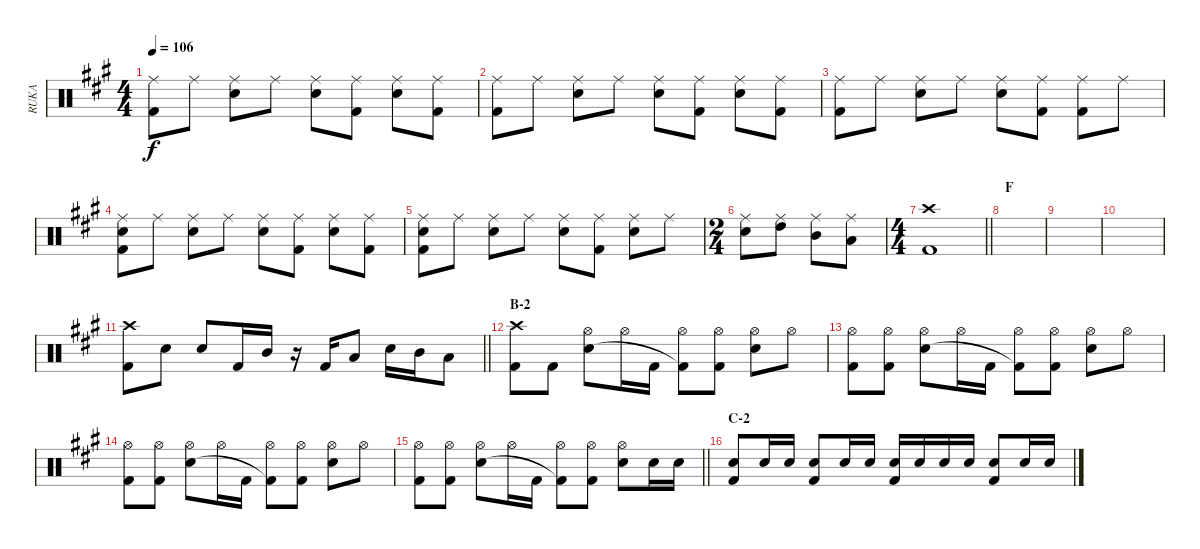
\track ("RUKA" "RUKA") {instrument percussion}
\staff {score}
\articulation defaults
\ts (4 4)
\tempo 106
\clef neutral
\ks a
("Ride (middle)" "Kick (hit) 2").8{dy f} "Ride (middle)".8 ("Ride (middle)" "Snare (hit) 2").8 "Ride (middle)".8 ("Ride (middle)" "Snare (hit) 2").8 ("Ride (middle)" "Kick (hit) 2").8 ("Ride (middle)" "Snare (hit) 2").8 ("Ride (middle)" "Kick (hit) 2").8 |
("Ride (middle)" "Kick (hit) 2").8 "Ride (middle)".8 ("Ride (middle)" "Snare (hit) 2").8 "Ride (middle)".8 ("Ride (middle)" "Snare (hit) 2").8 ("Ride (middle)" "Kick (hit) 2").8 ("Ride (middle)" "Snare (hit) 2").8 ("Ride (middle)" "Kick (hit) 2").8 |
("Ride (middle)" "Kick (hit) 2").8 "Ride (middle)".8 ("Ride (middle)" "Snare (hit) 2").8 "Ride (middle)".8 ("Ride (middle)" "Snare (hit) 2").8 ("Ride (middle)" "Kick (hit) 2").8 ("Ride (middle)" "Kick (hit) 2").8 "Ride (middle)".8 |
("Ride (middle)" "Snare (hit) 2" "Kick (hit) 2").8 "Ride (middle)".8 ("Ride (middle)" "Snare (hit) 2").8 "Ride (middle)".8 ("Ride (middle)" "Snare (hit) 2").8 ("Ride (middle)" "Kick (hit) 2").8 ("Ride (middle)" "Snare (hit) 2").8 ("Ride (middle)" "Kick (hit) 2").8 |
("Ride (middle)" "Snare (hit) 2" "Kick (hit) 2").8 "Ride (middle)".8 ("Ride (middle)" "Snare (hit) 2").8 "Ride (middle)".8 ("Ride (middle)" "Snare (hit) 2").8 ("Ride (middle)" "Kick (hit) 2").8 ("Ride (middle)" "Snare (hit) 2").8 "Ride (middle)".8 |
\ts (2 4)
("Ride (middle)" "Snare (hit) 2").8 ("Ride (middle)" "High Tom (hit)").8 ("Ride (middle)" "Mid Tom (hit)").8 ("Ride (middle)" "Low Tom (hit)").8 |
\ts (4 4)
\barLineRight lightlight
("Crash high (hit)" "Kick (hit) 2").1 |
\section ("" "F")
|
|
|
\barLineRight lightlight
("Crash high (hit)" "Kick (hit) 2").8 "Snare (hit) 2".8 "Snare (hit) 2".8 "Kick (hit) 2".16 "Mid Tom (hit)".16 r.16 "Kick (hit) 2".16 "Low Tom (hit)".8 "Snare (hit) 2".16 "Mid Tom (hit)".16 "Low Tom (hit)".8 |
\section ("" "B-2")
("Crash high (hit)" "Kick (hit) 2").8 "Kick (hit) 2".8 ("Hi-Hat (open)" "Snare (hit) 2").8 "Hi-Hat (open)".16 "Kick (hit) 2".16 ("Hi-Hat (open)" "Kick (hit) 2"{t}).8 ("Hi-Hat (open)" "Kick (hit) 2").8 ("Hi-Hat (open)" "Snare (hit) 2").8 "Hi-Hat (open)".8 |
("Hi-Hat (open)" "Kick (hit) 2").8 ("Hi-Hat (open)" "Kick (hit) 2").8 ("Hi-Hat (open)" "Snare (hit) 2").8 "Hi-Hat (open)".16 "Kick (hit) 2".16 ("Hi-Hat (open)" "Kick (hit) 2"{t}).8 ("Hi-Hat (open)" "Kick (hit) 2").8 ("Hi-Hat (open)" "Snare (hit) 2").8 "Hi-Hat (open)".8 |
("Hi-Hat (open)" "Kick (hit) 2").8 ("Hi-Hat (open)" "Kick (hit) 2").8 ("Hi-Hat (open)" "Snare (hit) 2").8 "Hi-Hat (open)".16 "Kick (hit) 2".16 ("Hi-Hat (open)" "Kick (hit) 2"{t}).8 ("Hi-Hat (open)" "Kick (hit) 2").8 ("Hi-Hat (open)" "Snare (hit) 2").8 "Hi-Hat (open)".8 |
\barLineRight lightlight
("Hi-Hat (open)" "Kick (hit) 2").8 ("Hi-Hat (open)" "Kick (hit) 2").8 ("Hi-Hat (open)" "Snare (hit) 2").8 "Hi-Hat (open)".16 "Kick (hit) 2".16 ("Hi-Hat (open)" "Kick (hit) 2"{t}).8 ("Hi-Hat (open)" "Kick (hit) 2").8 ("Hi-Hat (open)" "Snare (hit) 2").8 "Snare (hit) 2".16 "Snare (hit) 2".16 |
\section ("" "C-2")
("Snare (hit) 2" "Kick (hit) 2").8 "Snare (hit) 2".16 "Snare (hit) 2".16 ("Snare (hit) 2" "Kick (hit) 2").8 "Snare (hit) 2".16 "Snare (hit) 2".16 ("Snare (hit) 2" "Kick (hit) 2").16 "Snare (hit) 2".16 "Snare (hit) 2".16 "Snare (hit) 2".16 ("Snare (hit) 2" "Kick (hit) 2").8 "Snare (hit) 2".16 "Snare (hit) 2".16
